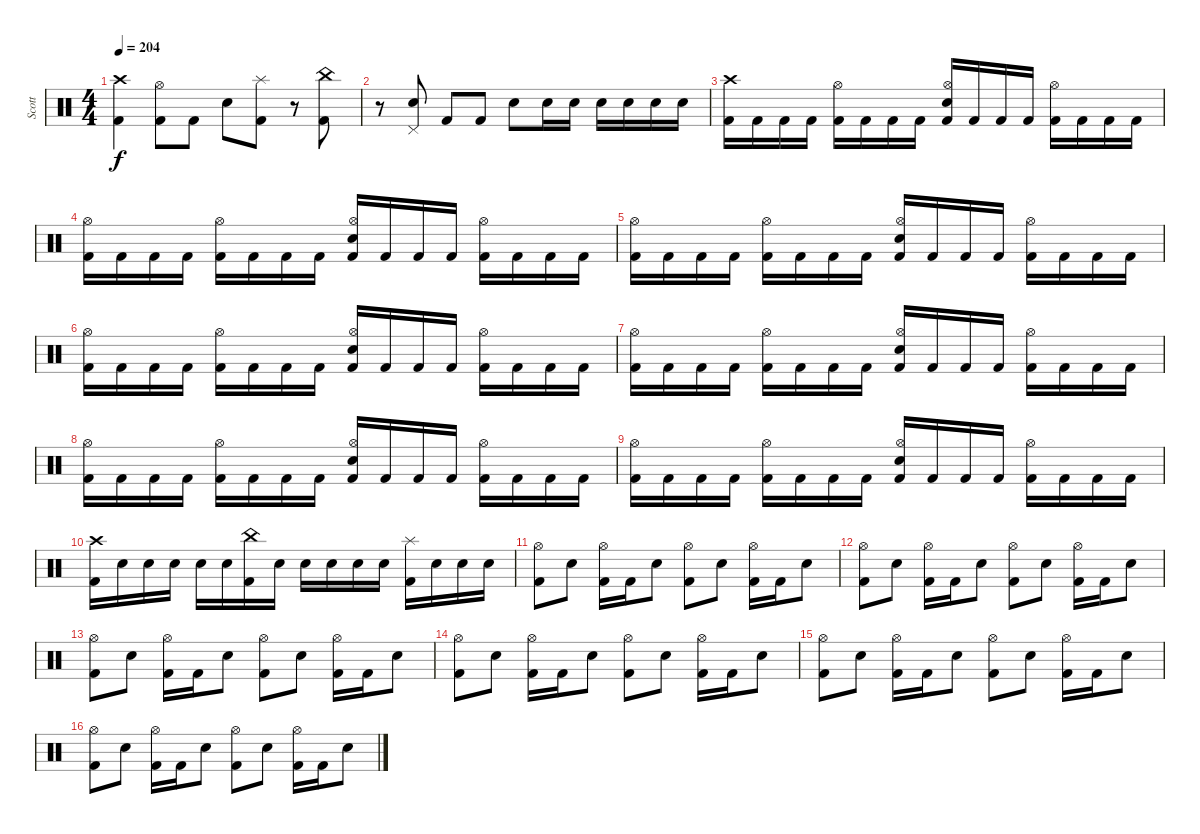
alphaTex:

\track ("Scott" "Scott") {instrument percussion}
\staff {score}
\articulation defaults
\ts (4 4)
\tempo 204
\clef neutral
\ks c
("Crash high (hit)" "Kick (hit) 2").4{dy f} ("Hi-Hat (open)" "Kick (hit) 2").8 "Kick (hit) 2".8 "Snare (hit) 2".8 ("Splash (hit)" "Kick (hit) 2").8 r.8 ("China (hit)" "Kick (hit) 2").8 |
r.8 ("Pedal Hi-Hat (hit)" "Snare (hit) 2").8 "Kick (hit) 2".8 "Kick (hit) 2".8 "Snare (hit) 2".8 "Snare (hit) 2".16 "Snare (hit) 2".16 "Snare (hit) 2".16 "Snare (hit) 2".16 "Snare (hit) 2".16 "Snare (hit) 2".16 |
("Crash high (hit)" "Kick (hit) 2").16 "Kick (hit) 2".16 "Kick (hit) 2".16 "Kick (hit) 2".16 ("Hi-Hat (open)" "Kick (hit) 2").16 "Kick (hit) 2".16 "Kick (hit) 2".16 "Kick (hit) 2".16 ("Hi-Hat (open)" "Snare (hit) 2" "Kick (hit) 2").16 "Kick (hit) 2".16 "Kick (hit) 2".16 "Kick (hit) 2".16 ("Hi-Hat (open)" "Kick (hit) 2").16 "Kick (hit) 2".16 "Kick (hit) 2".16 "Kick (hit) 2".16 |
("Hi-Hat (open)" "Kick (hit) 2").16 "Kick (hit) 2".16 "Kick (hit) 2".16 "Kick (hit) 2".16 ("Hi-Hat (open)" "Kick (hit) 2").16 "Kick (hit) 2".16 "Kick (hit) 2".16 "Kick (hit) 2".16 ("Hi-Hat (open)" "Snare (hit) 2" "Kick (hit) 2").16 "Kick (hit) 2".16 "Kick (hit) 2".16 "Kick (hit) 2".16 ("Hi-Hat (open)" "Kick (hit) 2").16 "Kick (hit) 2".16 "Kick (hit) 2".16 "Kick (hit) 2".16 |
("Hi-Hat (open)" "Kick (hit) 2").16 "Kick (hit) 2".16 "Kick (hit) 2".16 "Kick (hit) 2".16 ("Hi-Hat (open)" "Kick (hit) 2").16 "Kick (hit) 2".16 "Kick (hit) 2".16 "Kick (hit) 2".16 ("Hi-Hat (open)" "Snare (hit) 2" "Kick (hit) 2").16 "Kick (hit) 2".16 "Kick (hit) 2".16 "Kick (hit) 2".16 ("Hi-Hat (open)" "Kick (hit) 2").16 "Kick (hit) 2".16 "Kick (hit) 2".16 "Kick (hit) 2".16 |
("Hi-Hat (open)" "Kick (hit) 2").16 "Kick (hit) 2".16 "Kick (hit) 2".16 "Kick (hit) 2".16 ("Hi-Hat (open)" "Kick (hit) 2").16 "Kick (hit) 2".16 "Kick (hit) 2".16 "Kick (hit) 2".16 ("Hi-Hat (open)" "Snare (hit) 2" "Kick (hit) 2").16 "Kick (hit) 2".16 "Kick (hit) 2".16 "Kick (hit) 2".16 ("Hi-Hat (open)" "Kick (hit) 2").16 "Kick (hit) 2".16 "Kick (hit) 2".16 "Kick (hit) 2".16 |
("Hi-Hat (open)" "Kick (hit) 2").16 "Kick (hit) 2".16 "Kick (hit) 2".16 "Kick (hit) 2".16 ("Hi-Hat (open)" "Kick (hit) 2").16 "Kick (hit) 2".16 "Kick (hit) 2".16 "Kick (hit) 2".16 ("Hi-Hat (open)" "Snare (hit) 2" "Kick (hit) 2").16 "Kick (hit) 2".16 "Kick (hit) 2".16 "Kick (hit) 2".16 ("Hi-Hat (open)" "Kick (hit) 2").16 "Kick (hit) 2".16 "Kick (hit) 2".16 "Kick (hit) 2".16 |
("Hi-Hat (open)" "Kick (hit) 2").16 "Kick (hit) 2".16 "Kick (hit) 2".16 "Kick (hit) 2".16 ("Hi-Hat (open)" "Kick (hit) 2").16 "Kick (hit) 2".16 "Kick (hit) 2".16 "Kick (hit) 2".16 ("Hi-Hat (open)" "Snare (hit) 2" "Kick (hit) 2").16 "Kick (hit) 2".16 "Kick (hit) 2".16 "Kick (hit) 2".16 ("Hi-Hat (open)" "Kick (hit) 2").16 "Kick (hit) 2".16 "Kick (hit) 2".16 "Kick (hit) 2".16 |
("Hi-Hat (open)" "Kick (hit) 2").16 "Kick (hit) 2".16 "Kick (hit) 2".16 "Kick (hit) 2".16 ("Hi-Hat (open)" "Kick (hit) 2").16 "Kick (hit) 2".16 "Kick (hit) 2".16 "Kick (hit) 2".16 ("Hi-Hat (open)" "Snare (hit) 2" "Kick (hit) 2").16 "Kick (hit) 2".16 "Kick (hit) 2".16 "Kick (hit) 2".16 ("Hi-Hat (open)" "Kick (hit) 2").16 "Kick (hit) 2".16 "Kick (hit) 2".16 "Kick (hit) 2".16 |
("Crash high (hit)" "Kick (hit) 2").16 "Snare (hit) 2".16 "Snare (hit) 2".16 "Snare (hit) 2".16 "Snare (hit) 2".16 "Snare (hit) 2".16 ("China (hit)" "Kick (hit) 2").16 "Snare (hit) 2".16 "Snare (hit) 2".16 "Snare (hit) 2".16 "Snare (hit) 2".16 "Snare (hit) 2".16 ("Splash (hit)" "Kick (hit) 2").16 "Snare (hit) 2".16 "Snare (hit) 2".16 "Snare (hit) 2".16 |
("Hi-Hat (open)" "Kick (hit) 2").8 "Snare (hit) 2".8 ("Hi-Hat (open)" "Kick (hit) 2").16 "Kick (hit) 2".16 "Snare (hit) 2".8 ("Hi-Hat (open)" "Kick (hit) 2").8 "Snare (hit) 2".8 ("Hi-Hat (open)" "Kick (hit) 2").16 "Kick (hit) 2".16 "Snare (hit) 2".8 |
("Hi-Hat (open)" "Kick (hit) 2").8 "Snare (hit) 2".8 ("Hi-Hat (open)" "Kick (hit) 2").16 "Kick (hit) 2".16 "Snare (hit) 2".8 ("Hi-Hat (open)" "Kick (hit) 2").8 "Snare (hit) 2".8 ("Hi-Hat (open)" "Kick (hit) 2").16 "Kick (hit) 2".16 "Snare (hit) 2".8 |
("Hi-Hat (open)" "Kick (hit) 2").8 "Snare (hit) 2".8 ("Hi-Hat (open)" "Kick (hit) 2").16 "Kick (hit) 2".16 "Snare (hit) 2".8 ("Hi-Hat (open)" "Kick (hit) 2").8 "Snare (hit) 2".8 ("Hi-Hat (open)" "Kick (hit) 2").16 "Kick (hit) 2".16 "Snare (hit) 2".8 |
("Hi-Hat (open)" "Kick (hit) 2").8 "Snare (hit) 2".8 ("Hi-Hat (open)" "Kick (hit) 2").16 "Kick (hit) 2".16 "Snare (hit) 2".8 ("Hi-Hat (open)" "Kick (hit) 2").8 "Snare (hit) 2".8 ("Hi-Hat (open)" "Kick (hit) 2").16 "Kick (hit) 2".16 "Snare (hit) 2".8 |
("Hi-Hat (open)" "Kick (hit) 2").8 "Snare (hit) 2".8 ("Hi-Hat (open)" "Kick (hit) 2").16 "Kick (hit) 2".16 "Snare (hit) 2".8 ("Hi-Hat (open)" "Kick (hit) 2").8 "Snare (hit) 2".8 ("Hi-Hat (open)" "Kick (hit) 2").16 "Kick (hit) 2".16 "Snare (hit) 2".8 |
("Hi-Hat (open)" "Kick (hit) 2").8 "Snare (hit) 2".8 ("Hi-Hat (open)" "Kick (hit) 2").16 "Kick (hit) 2".16 "Snare (hit) 2".8 ("Hi-Hat (open)" "Kick (hit) 2").8 "Snare (hit) 2".8 ("Hi-Hat (open)" "Kick (hit) 2").16 "Kick (hit) 2".16 "Snare (hit) 2".8
